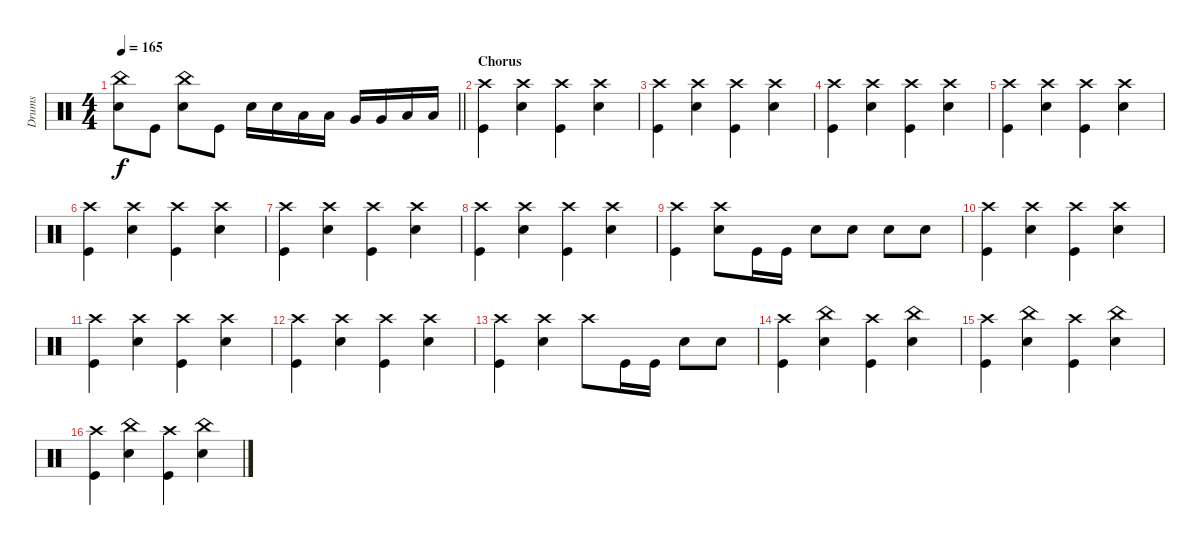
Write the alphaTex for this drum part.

\track ("Drums" "Drums") {instrument percussion}
\staff {score}
\articulation defaults
\ts (4 4)
\tempo 165
\clef neutral
\barLineRight lightlight
\ks c
("Snare (hit) 2" "China (hit)").8{dy f} "Kick (hit)".8 ("Snare (hit) 2" "China (hit)").8 "Kick (hit)".8 "Snare (hit) 2".16 "Snare (hit) 2".16 "Low Tom (hit)".16 "Low Tom (hit)".16 "Very Low Tom (hit)".16 "Very Low Tom (hit)".16 "Low Floor Tom (hit)".16 "Low Floor Tom (hit)".16 |
\section ("" "Chorus")
("Kick (hit)" "Crash high (hit)").4 ("Snare (hit) 2" "Crash high (hit)").4 ("Kick (hit)" "Crash high (hit)").4 ("Snare (hit) 2" "Crash high (hit)").4 |
("Kick (hit)" "Crash high (hit)").4 ("Snare (hit) 2" "Crash high (hit)").4 ("Kick (hit)" "Crash high (hit)").4 ("Snare (hit) 2" "Crash high (hit)").4 |
("Kick (hit)" "Crash high (hit)").4 ("Snare (hit) 2" "Crash high (hit)").4 ("Kick (hit)" "Crash high (hit)").4 ("Snare (hit) 2" "Crash high (hit)").4 |
("Kick (hit)" "Crash high (hit)").4 ("Snare (hit) 2" "Crash high (hit)").4 ("Kick (hit)" "Crash high (hit)").4 ("Snare (hit) 2" "Crash high (hit)").4 |
("Kick (hit)" "Crash high (hit)").4 ("Snare (hit) 2" "Crash high (hit)").4 ("Kick (hit)" "Crash high (hit)").4 ("Snare (hit) 2" "Crash high (hit)").4 |
("Kick (hit)" "Crash high (hit)").4 ("Snare (hit) 2" "Crash high (hit)").4 ("Kick (hit)" "Crash high (hit)").4 ("Snare (hit) 2" "Crash high (hit)").4 |
("Kick (hit)" "Crash high (hit)").4 ("Snare (hit) 2" "Crash high (hit)").4 ("Kick (hit)" "Crash high (hit)").4 ("Snare (hit) 2" "Crash high (hit)").4 |
("Kick (hit)" "Crash high (hit)").4 ("Snare (hit) 2" "Crash high (hit)").8 "Kick (hit)".16 "Kick (hit)".16 "Snare (hit) 2".8 "Snare (hit) 2".8 "Snare (hit) 2".8 "Snare (hit) 2".8 |
("Kick (hit)" "Crash high (hit)").4 ("Snare (hit) 2" "Crash high (hit)").4 ("Kick (hit)" "Crash high (hit)").4 ("Snare (hit) 2" "Crash high (hit)").4 |
("Kick (hit)" "Crash high (hit)").4 ("Snare (hit) 2" "Crash high (hit)").4 ("Kick (hit)" "Crash high (hit)").4 ("Snare (hit) 2" "Crash high (hit)").4 |
("Kick (hit)" "Crash high (hit)").4 ("Snare (hit) 2" "Crash high (hit)").4 ("Kick (hit)" "Crash high (hit)").4 ("Snare (hit) 2" "Crash high (hit)").4 |
("Kick (hit)" "Crash high (hit)").4 ("Snare (hit) 2" "Crash high (hit)").4 "Crash high (hit)".8 "Kick (hit)".16 "Kick (hit)".16 "Snare (hit) 2".8 "Snare (hit) 2".8 |
("Kick (hit)" "Crash high (hit)").4 ("Snare (hit) 2" "China (hit)").4 ("Kick (hit)" "Crash high (hit)").4 ("Snare (hit) 2" "China (hit)").4 |
("Kick (hit)" "Crash high (hit)").4 ("Snare (hit) 2" "China (hit)").4 ("Kick (hit)" "Crash high (hit)").4 ("Snare (hit) 2" "China (hit)").4 |
("Kick (hit)" "Crash high (hit)").4 ("Snare (hit) 2" "China (hit)").4 ("Kick (hit)" "Crash high (hit)").4 ("Snare (hit) 2" "China (hit)").4
